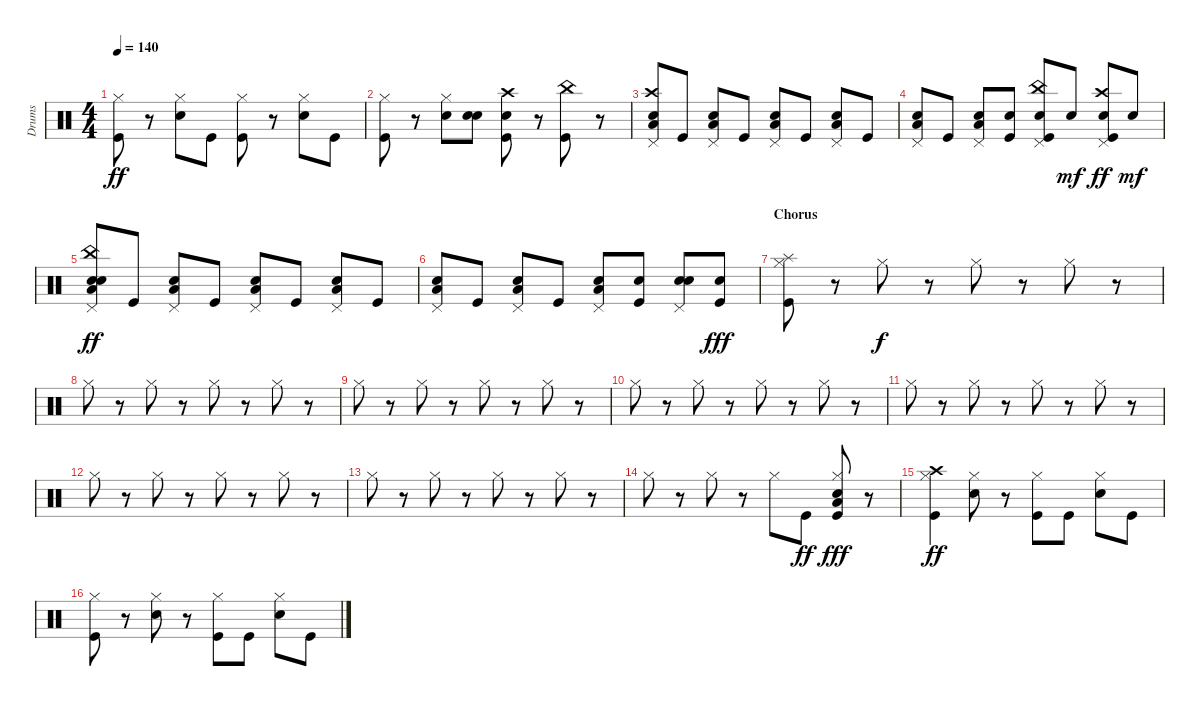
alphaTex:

\track ("Drums" "Drums") {instrument percussion}
\staff {score}
\articulation defaults
\ts (4 4)
\tempo 140
\clef neutral
\ks c
("Kick (hit)" "Hi-Hat (closed)").8{dy ff} r.8 ("Hi-Hat (closed)" "Snare (hit) 2").8 "Kick (hit)".8 ("Hi-Hat (closed)" "Kick (hit)").8 r.8 ("Hi-Hat (closed)" "Snare (hit) 2").8 "Kick (hit)".8 |
("Hi-Hat (closed)" "Kick (hit)").8 r.8 ("Hi-Hat (closed)" "Snare (hit) 2").8 ("Snare (hit) 2" "Snare (hit) 2").8 ("Snare (hit) 2" "Crash high (hit)" "Kick (hit)").8 r.8 ("China (hit)" "Kick (hit)").8 r.8 |
("Crash high (hit)" "Pedal Hi-Hat (hit)" "Snare (hit) 2" "Low Floor Tom (hit)").8 "Kick (hit)".8 ("Snare (hit) 2" "Pedal Hi-Hat (hit)" "Low Floor Tom (hit)").8 "Kick (hit)".8 ("Snare (hit) 2" "Pedal Hi-Hat (hit)" "Low Floor Tom (hit)").8 "Kick (hit)".8 ("Snare (hit) 2" "Pedal Hi-Hat (hit)" "Low Floor Tom (hit)").8 "Kick (hit)".8 |
("Snare (hit) 2" "Pedal Hi-Hat (hit)" "Low Floor Tom (hit)").8 "Kick (hit)".8 ("Snare (hit) 2" "Pedal Hi-Hat (hit)" "Low Floor Tom (hit)").8 ("Snare (hit) 2" "Kick (hit)").8 ("Snare (hit) 2" "Kick (hit)" "China (hit)" "Pedal Hi-Hat (hit)").8 "Snare (hit) 2".8{dy mf} ("Snare (hit) 2" "Crash high (hit)" "Pedal Hi-Hat (hit)" "Kick (hit)").8{dy ff} "Snare (hit) 2".8{dy mf} |
("Snare (hit) 2" "Snare (hit) 2" "China (hit)" "Pedal Hi-Hat (hit)" "Low Floor Tom (hit)").8{dy ff} "Kick (hit)".8 ("Snare (hit) 2" "Pedal Hi-Hat (hit)" "Low Floor Tom (hit)").8 "Kick (hit)".8 ("Snare (hit) 2" "Pedal Hi-Hat (hit)" "Low Floor Tom (hit)").8 "Kick (hit)".8 ("Snare (hit) 2" "Pedal Hi-Hat (hit)" "Low Floor Tom (hit)").8 "Kick (hit)".8 |
("Snare (hit) 2" "Pedal Hi-Hat (hit)" "Low Floor Tom (hit)").8 "Kick (hit)".8 ("Snare (hit) 2" "Pedal Hi-Hat (hit)" "Low Floor Tom (hit)").8 "Kick (hit)".8 ("Snare (hit) 2" "Pedal Hi-Hat (hit)" "Low Floor Tom (hit)").8 ("Snare (hit) 2" "Kick (hit)").8 ("Snare (hit) 2" "Pedal Hi-Hat (hit)" "Snare (hit) 2").8 ("Snare (hit) 2" "Kick (hit)").8{dy fff} |
\section ("" "Chorus")
("Kick (hit)" "Splash (hit)" "Hi-Hat (closed)").8 r.8 "Hi-Hat (closed)".8{dy f} r.8 "Hi-Hat (closed)".8 r.8 "Hi-Hat (closed)".8 r.8 |
"Hi-Hat (closed)".8 r.8 "Hi-Hat (closed)".8 r.8 "Hi-Hat (closed)".8 r.8 "Hi-Hat (closed)".8 r.8 |
"Hi-Hat (closed)".8 r.8 "Hi-Hat (closed)".8 r.8 "Hi-Hat (closed)".8 r.8 "Hi-Hat (closed)".8 r.8 |
"Hi-Hat (closed)".8 r.8 "Hi-Hat (closed)".8 r.8 "Hi-Hat (closed)".8 r.8 "Hi-Hat (closed)".8 r.8 |
"Hi-Hat (closed)".8 r.8 "Hi-Hat (closed)".8 r.8 "Hi-Hat (closed)".8 r.8 "Hi-Hat (closed)".8 r.8 |
"Hi-Hat (closed)".8 r.8 "Hi-Hat (closed)".8 r.8 "Hi-Hat (closed)".8 r.8 "Hi-Hat (closed)".8 r.8 |
"Hi-Hat (closed)".8 r.8 "Hi-Hat (closed)".8 r.8 "Hi-Hat (closed)".8 r.8 "Hi-Hat (closed)".8 r.8 |
"Hi-Hat (closed)".8 r.8 "Hi-Hat (closed)".8 r.8 "Hi-Hat (closed)".8 "Kick (hit)".8{dy ff} ("Kick (hit)" "Snare (hit) 2" "Low Floor Tom (hit)" "Hi-Hat (closed)").8{dy fff} r.8 |
("Crash high (hit)" "Hi-Hat (closed)" "Kick (hit)").4{dy ff} ("Hi-Hat (closed)" "Snare (hit) 2").8 r.8 ("Hi-Hat (closed)" "Kick (hit)").8 "Kick (hit)".8 ("Hi-Hat (closed)" "Snare (hit) 2").8 "Kick (hit)".8 |
("Hi-Hat (closed)" "Kick (hit)").8 r.8 ("Hi-Hat (closed)" "Snare (hit) 2").8 r.8 ("Hi-Hat (closed)" "Kick (hit)").8 "Kick (hit)".8 ("Hi-Hat (closed)" "Snare (hit) 2").8 "Kick (hit)".8
